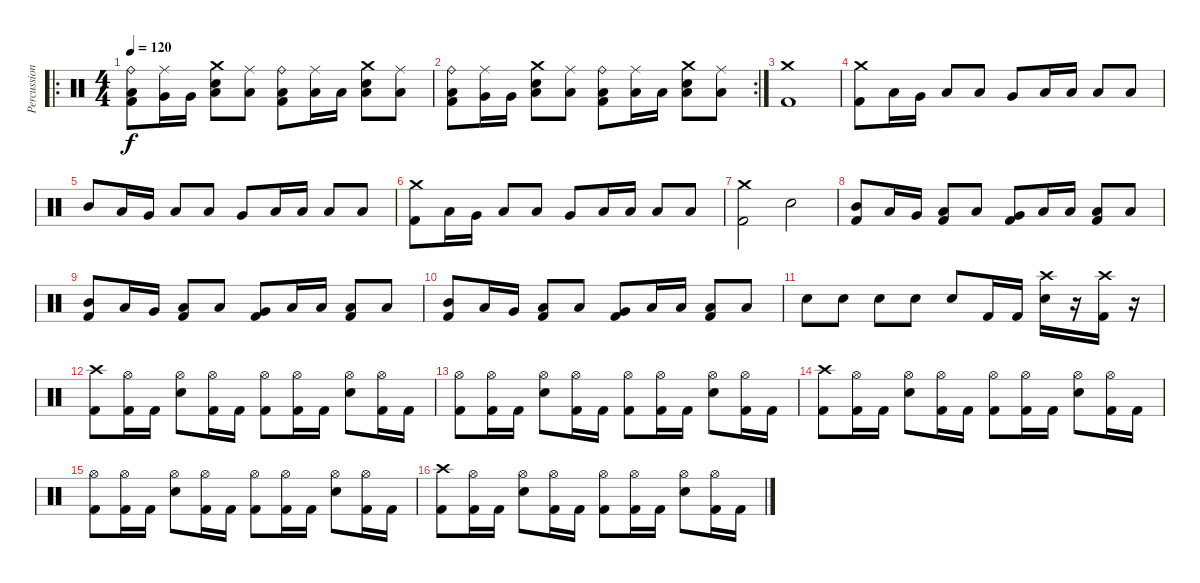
\track ("Percussion" "Percussion") {instrument percussion}
\staff {score}
\articulation defaults
\ro
\ts (4 4)
\tempo 120
\clef neutral
\ks c
("Ride (bell)" "Low Floor Tom (hit)" "Kick (hit) 2").8{dy f} ("Very Low Tom (hit)" "Ride (middle)").16 "Very Low Tom (hit)".16 ("Crash medium (hit)" "Low Floor Tom (hit)" "Snare (hit) 2").8 ("Low Floor Tom (hit)" "Ride (middle)").8 ("Ride (bell)" "Low Floor Tom (hit)" "Kick (hit) 2").8 ("Low Floor Tom (hit)" "Ride (middle)").16 "Low Floor Tom (hit)".16 ("Crash medium (hit)" "Low Floor Tom (hit)" "Snare (hit) 2").8 ("Low Floor Tom (hit)" "Ride (middle)").8 |
\rc 2
("Ride (bell)" "Low Floor Tom (hit)" "Kick (hit) 2").8 ("Very Low Tom (hit)" "Ride (middle)").16 "Very Low Tom (hit)".16 ("Crash medium (hit)" "Low Floor Tom (hit)" "Snare (hit) 2").8 ("Low Floor Tom (hit)" "Ride (middle)").8 ("Ride (bell)" "Low Floor Tom (hit)" "Kick (hit) 2").8 ("Low Floor Tom (hit)" "Ride (middle)").16 "Low Floor Tom (hit)".16 ("Crash medium (hit)" "Low Floor Tom (hit)" "Snare (hit) 2").8 ("Low Floor Tom (hit)" "Ride (middle)").8 |
("Crash medium (hit)" "Kick (hit) 2").1 |
("Crash medium (hit)" "Kick (hit) 2").8 "Low Tom (hit)".16 "Very Low Tom (hit)".16 "Low Floor Tom (hit)".8 "Low Floor Tom (hit)".8 "Very Low Tom (hit)".8 "Low Floor Tom (hit)".16 "Low Floor Tom (hit)".16 "Low Floor Tom (hit)".8 "Low Floor Tom (hit)".8 |
"Mid Tom (hit)".8 "Low Tom (hit)".16 "Very Low Tom (hit)".16 "Low Floor Tom (hit)".8 "Low Floor Tom (hit)".8 "Very Low Tom (hit)".8 "Low Floor Tom (hit)".16 "Low Floor Tom (hit)".16 "Low Floor Tom (hit)".8 "Low Floor Tom (hit)".8 |
("Crash medium (hit)" "Kick (hit) 2").8 "Low Tom (hit)".16 "Very Low Tom (hit)".16 "Low Floor Tom (hit)".8 "Low Floor Tom (hit)".8 "Very Low Tom (hit)".8 "Low Floor Tom (hit)".16 "Low Floor Tom (hit)".16 "Low Floor Tom (hit)".8 "Low Floor Tom (hit)".8 |
("Crash medium (hit)" "Kick (hit) 2").2 "Snare (hit) 2".2 |
("Mid Tom (hit)" "Kick (hit) 2").8 "Low Tom (hit)".16 "Very Low Tom (hit)".16 ("Low Floor Tom (hit)" "Kick (hit) 2").8 "Low Floor Tom (hit)".8 ("Very Low Tom (hit)" "Kick (hit) 2").8 "Low Floor Tom (hit)".16 "Low Floor Tom (hit)".16 ("Low Floor Tom (hit)" "Kick (hit) 2").8 "Low Floor Tom (hit)".8 |
("Mid Tom (hit)" "Kick (hit) 2").8 "Low Tom (hit)".16 "Very Low Tom (hit)".16 ("Low Floor Tom (hit)" "Kick (hit) 2").8 "Low Floor Tom (hit)".8 ("Very Low Tom (hit)" "Kick (hit) 2").8 "Low Floor Tom (hit)".16 "Low Floor Tom (hit)".16 ("Low Floor Tom (hit)" "Kick (hit) 2").8 "Low Floor Tom (hit)".8 |
("Mid Tom (hit)" "Kick (hit) 2").8 "Low Tom (hit)".16 "Very Low Tom (hit)".16 ("Low Floor Tom (hit)" "Kick (hit) 2").8 "Low Floor Tom (hit)".8 ("Very Low Tom (hit)" "Kick (hit) 2").8 "Low Floor Tom (hit)".16 "Low Floor Tom (hit)".16 ("Low Floor Tom (hit)" "Kick (hit) 2").8 "Low Floor Tom (hit)".8 |
"Snare (hit) 2".8 "Snare (hit) 2".8 "Snare (hit) 2".8 "Snare (hit) 2".8 "Snare (hit) 2".8 "Kick (hit) 2".16 "Kick (hit) 2".16 ("Crash high (hit)" "Snare (hit) 2").16 r.16 ("Crash high (hit)" "Kick (hit) 2").16 r.16 |
("Crash high (hit)" "Kick (hit) 2").8 ("Hi-Hat (open)" "Kick (hit) 2").16 "Kick (hit) 2".16 ("Hi-Hat (open)" "Snare (hit) 2").8 ("Hi-Hat (open)" "Kick (hit) 2").16 "Kick (hit) 2".16 ("Hi-Hat (open)" "Kick (hit) 2").8 ("Hi-Hat (open)" "Kick (hit) 2").16 "Kick (hit) 2".16 ("Hi-Hat (open)" "Snare (hit) 2").8 ("Hi-Hat (open)" "Kick (hit) 2").16 "Kick (hit) 2".16 |
("Hi-Hat (open)" "Kick (hit) 2").8 ("Hi-Hat (open)" "Kick (hit) 2").16 "Kick (hit) 2".16 ("Hi-Hat (open)" "Snare (hit) 2").8 ("Hi-Hat (open)" "Kick (hit) 2").16 "Kick (hit) 2".16 ("Hi-Hat (open)" "Kick (hit) 2").8 ("Hi-Hat (open)" "Kick (hit) 2").16 "Kick (hit) 2".16 ("Hi-Hat (open)" "Snare (hit) 2").8 ("Hi-Hat (open)" "Kick (hit) 2").16 "Kick (hit) 2".16 |
("Crash high (hit)" "Kick (hit) 2").8 ("Hi-Hat (open)" "Kick (hit) 2").16 "Kick (hit) 2".16 ("Hi-Hat (open)" "Snare (hit) 2").8 ("Hi-Hat (open)" "Kick (hit) 2").16 "Kick (hit) 2".16 ("Hi-Hat (open)" "Kick (hit) 2").8 ("Hi-Hat (open)" "Kick (hit) 2").16 "Kick (hit) 2".16 ("Hi-Hat (open)" "Snare (hit) 2").8 ("Hi-Hat (open)" "Kick (hit) 2").16 "Kick (hit) 2".16 |
("Hi-Hat (open)" "Kick (hit) 2").8 ("Hi-Hat (open)" "Kick (hit) 2").16 "Kick (hit) 2".16 ("Hi-Hat (open)" "Snare (hit) 2").8 ("Hi-Hat (open)" "Kick (hit) 2").16 "Kick (hit) 2".16 ("Hi-Hat (open)" "Kick (hit) 2").8 ("Hi-Hat (open)" "Kick (hit) 2").16 "Kick (hit) 2".16 ("Hi-Hat (open)" "Snare (hit) 2").8 ("Hi-Hat (open)" "Kick (hit) 2").16 "Kick (hit) 2".16 |
("Crash high (hit)" "Kick (hit) 2").8 ("Hi-Hat (open)" "Kick (hit) 2").16 "Kick (hit) 2".16 ("Hi-Hat (open)" "Snare (hit) 2").8 ("Hi-Hat (open)" "Kick (hit) 2").16 "Kick (hit) 2".16 ("Hi-Hat (open)" "Kick (hit) 2").8 ("Hi-Hat (open)" "Kick (hit) 2").16 "Kick (hit) 2".16 ("Hi-Hat (open)" "Snare (hit) 2").8 ("Hi-Hat (open)" "Kick (hit) 2").16 "Kick (hit) 2".16
